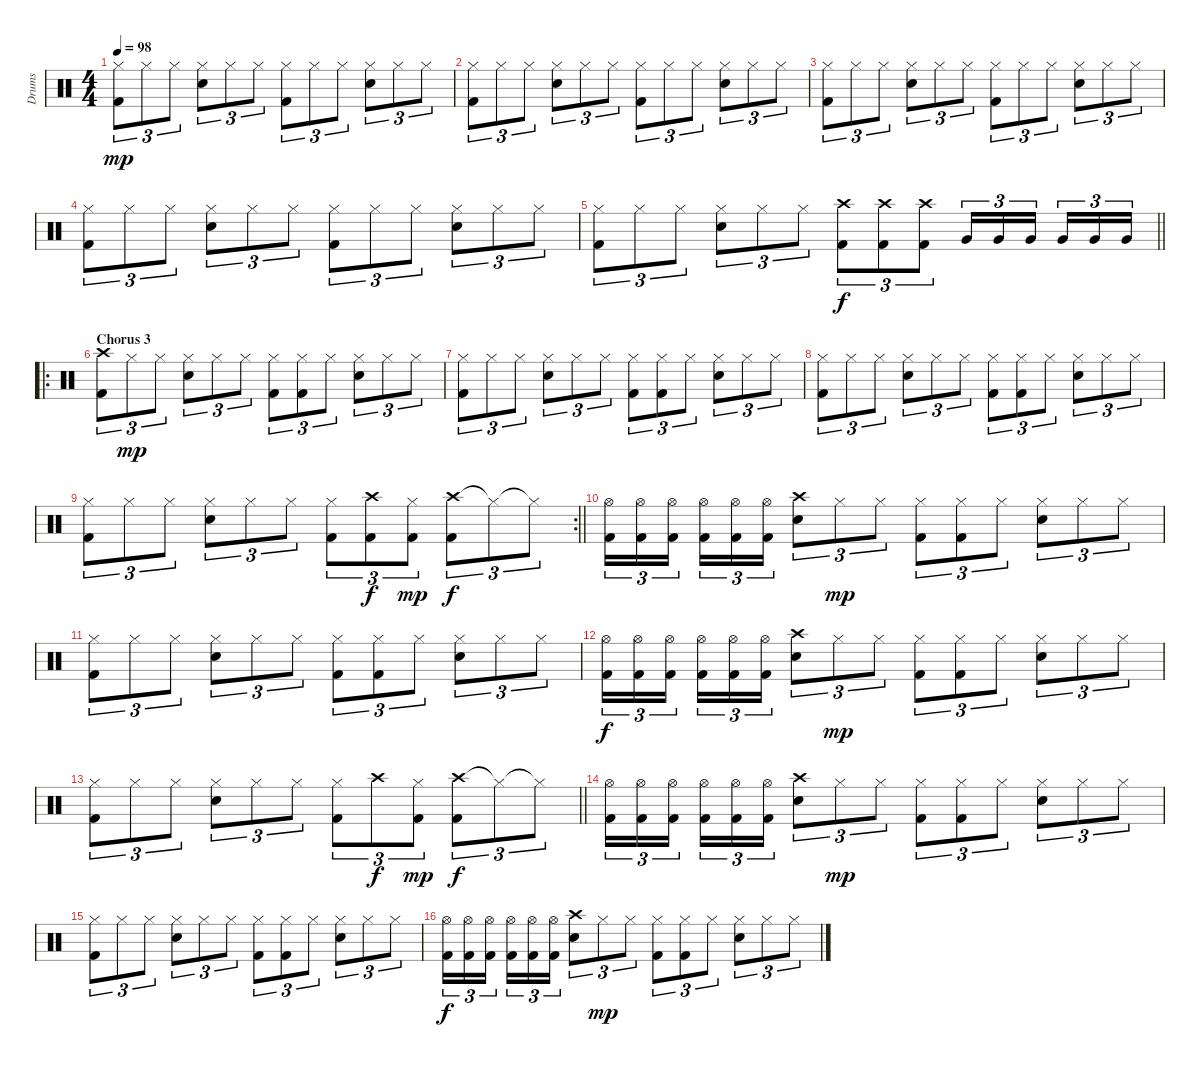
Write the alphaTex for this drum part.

\track ("Drums" "Drums") {instrument percussion}
\staff {score}
\articulation defaults
\ts (4 4)
\tempo 98
\clef neutral
\ks c
("Hi-Hat (closed)" "Kick (hit) 2").8{tu (3 2) dy mp} "Hi-Hat (closed)".8{tu (3 2)} "Hi-Hat (closed)".8{tu (3 2)} ("Hi-Hat (closed)" "Snare (hit) 2").8{tu (3 2)} "Hi-Hat (closed)".8{tu (3 2)} "Hi-Hat (closed)".8{tu (3 2)} ("Hi-Hat (closed)" "Kick (hit) 2").8{tu (3 2)} "Hi-Hat (closed)".8{tu (3 2)} "Hi-Hat (closed)".8{tu (3 2)} ("Hi-Hat (closed)" "Snare (hit) 2").8{tu (3 2)} "Hi-Hat (closed)".8{tu (3 2)} "Hi-Hat (closed)".8{tu (3 2)} |
("Hi-Hat (closed)" "Kick (hit) 2").8{tu (3 2)} "Hi-Hat (closed)".8{tu (3 2)} "Hi-Hat (closed)".8{tu (3 2)} ("Hi-Hat (closed)" "Snare (hit) 2").8{tu (3 2)} "Hi-Hat (closed)".8{tu (3 2)} "Hi-Hat (closed)".8{tu (3 2)} ("Hi-Hat (closed)" "Kick (hit) 2").8{tu (3 2)} "Hi-Hat (closed)".8{tu (3 2)} "Hi-Hat (closed)".8{tu (3 2)} ("Hi-Hat (closed)" "Snare (hit) 2").8{tu (3 2)} "Hi-Hat (closed)".8{tu (3 2)} "Hi-Hat (closed)".8{tu (3 2)} |
("Hi-Hat (closed)" "Kick (hit) 2").8{tu (3 2)} "Hi-Hat (closed)".8{tu (3 2)} "Hi-Hat (closed)".8{tu (3 2)} ("Hi-Hat (closed)" "Snare (hit) 2").8{tu (3 2)} "Hi-Hat (closed)".8{tu (3 2)} "Hi-Hat (closed)".8{tu (3 2)} ("Hi-Hat (closed)" "Kick (hit) 2").8{tu (3 2)} "Hi-Hat (closed)".8{tu (3 2)} "Hi-Hat (closed)".8{tu (3 2)} ("Hi-Hat (closed)" "Snare (hit) 2").8{tu (3 2)} "Hi-Hat (closed)".8{tu (3 2)} "Hi-Hat (closed)".8{tu (3 2)} |
("Hi-Hat (closed)" "Kick (hit) 2").8{tu (3 2)} "Hi-Hat (closed)".8{tu (3 2)} "Hi-Hat (closed)".8{tu (3 2)} ("Hi-Hat (closed)" "Snare (hit) 2").8{tu (3 2)} "Hi-Hat (closed)".8{tu (3 2)} "Hi-Hat (closed)".8{tu (3 2)} ("Hi-Hat (closed)" "Kick (hit) 2").8{tu (3 2)} "Hi-Hat (closed)".8{tu (3 2)} "Hi-Hat (closed)".8{tu (3 2)} ("Hi-Hat (closed)" "Snare (hit) 2").8{tu (3 2)} "Hi-Hat (closed)".8{tu (3 2)} "Hi-Hat (closed)".8{tu (3 2)} |
\barLineRight lightlight
("Hi-Hat (closed)" "Kick (hit) 2").8{tu (3 2)} "Hi-Hat (closed)".8{tu (3 2)} "Hi-Hat (closed)".8{tu (3 2)} ("Hi-Hat (closed)" "Snare (hit) 2").8{tu (3 2)} "Hi-Hat (closed)".8{tu (3 2)} "Hi-Hat (closed)".8{tu (3 2)} ("Crash high (hit)" "Kick (hit) 2").8{tu (3 2) dy f} ("Crash high (hit)" "Kick (hit) 2").8{tu (3 2)} ("Crash high (hit)" "Kick (hit) 2").8{tu (3 2)} "Very Low Tom (hit)".16{tu (3 2)} "Very Low Tom (hit)".16{tu (3 2)} "Very Low Tom (hit)".16{tu (3 2) beam splitsecondary} "Very Low Tom (hit)".16{tu (3 2)} "Very Low Tom (hit)".16{tu (3 2)} "Very Low Tom (hit)".16{tu (3 2)} |
\ro
\section ("" "Chorus 3")
("Crash high (hit)" "Kick (hit) 2").8{tu (3 2)} "Hi-Hat (closed)".8{tu (3 2) dy mp} "Hi-Hat (closed)".8{tu (3 2)} ("Hi-Hat (closed)" "Snare (hit) 2").8{tu (3 2)} "Hi-Hat (closed)".8{tu (3 2)} "Hi-Hat (closed)".8{tu (3 2)} ("Hi-Hat (closed)" "Kick (hit) 2").8{tu (3 2)} ("Hi-Hat (closed)" "Kick (hit) 2").8{tu (3 2)} "Hi-Hat (closed)".8{tu (3 2)} ("Hi-Hat (closed)" "Snare (hit) 2").8{tu (3 2)} "Hi-Hat (closed)".8{tu (3 2)} "Hi-Hat (closed)".8{tu (3 2)} |
("Hi-Hat (closed)" "Kick (hit) 2").8{tu (3 2)} "Hi-Hat (closed)".8{tu (3 2)} "Hi-Hat (closed)".8{tu (3 2)} ("Hi-Hat (closed)" "Snare (hit) 2").8{tu (3 2)} "Hi-Hat (closed)".8{tu (3 2)} "Hi-Hat (closed)".8{tu (3 2)} ("Hi-Hat (closed)" "Kick (hit) 2").8{tu (3 2)} ("Hi-Hat (closed)" "Kick (hit) 2").8{tu (3 2)} "Hi-Hat (closed)".8{tu (3 2)} ("Hi-Hat (closed)" "Snare (hit) 2").8{tu (3 2)} "Hi-Hat (closed)".8{tu (3 2)} "Hi-Hat (closed)".8{tu (3 2)} |
("Hi-Hat (closed)" "Kick (hit) 2").8{tu (3 2)} "Hi-Hat (closed)".8{tu (3 2)} "Hi-Hat (closed)".8{tu (3 2)} ("Hi-Hat (closed)" "Snare (hit) 2").8{tu (3 2)} "Hi-Hat (closed)".8{tu (3 2)} "Hi-Hat (closed)".8{tu (3 2)} ("Hi-Hat (closed)" "Kick (hit) 2").8{tu (3 2)} ("Hi-Hat (closed)" "Kick (hit) 2").8{tu (3 2)} "Hi-Hat (closed)".8{tu (3 2)} ("Hi-Hat (closed)" "Snare (hit) 2").8{tu (3 2)} "Hi-Hat (closed)".8{tu (3 2)} "Hi-Hat (closed)".8{tu (3 2)} |
\rc 2
\barLineRight lightlight
("Hi-Hat (closed)" "Kick (hit) 2").8{tu (3 2)} "Hi-Hat (closed)".8{tu (3 2)} "Hi-Hat (closed)".8{tu (3 2)} ("Hi-Hat (closed)" "Snare (hit) 2").8{tu (3 2)} "Hi-Hat (closed)".8{tu (3 2)} "Hi-Hat (closed)".8{tu (3 2)} ("Hi-Hat (closed)" "Kick (hit) 2").8{tu (3 2)} ("Crash high (hit)" "Kick (hit) 2").8{tu (3 2) dy f} ("Hi-Hat (closed)" "Kick (hit) 2").8{tu (3 2) dy mp} ("Crash high (hit)" "Kick (hit) 2").8{tu (3 2) dy f} "Hi-Hat (closed)"{t}.8{tu (3 2)} "Hi-Hat (closed)"{t}.8{tu (3 2)} |
("Hi-Hat (open)" "Kick (hit) 2").16{tu (3 2)} ("Hi-Hat (open)" "Kick (hit) 2").16{tu (3 2)} ("Hi-Hat (open)" "Kick (hit) 2").16{tu (3 2) beam splitsecondary} ("Hi-Hat (open)" "Kick (hit) 2").16{tu (3 2)} ("Hi-Hat (open)" "Kick (hit) 2").16{tu (3 2)} ("Hi-Hat (open)" "Kick (hit) 2").16{tu (3 2)} ("Crash high (hit)" "Snare (hit) 2").8{tu (3 2)} "Hi-Hat (closed)".8{tu (3 2) dy mp} "Hi-Hat (closed)".8{tu (3 2)} ("Hi-Hat (closed)" "Kick (hit) 2").8{tu (3 2)} ("Hi-Hat (closed)" "Kick (hit) 2").8{tu (3 2)} "Hi-Hat (closed)".8{tu (3 2)} ("Hi-Hat (closed)" "Snare (hit) 2").8{tu (3 2)} "Hi-Hat (closed)".8{tu (3 2)} "Hi-Hat (closed)".8{tu (3 2)} |
("Hi-Hat (closed)" "Kick (hit) 2").8{tu (3 2)} "Hi-Hat (closed)".8{tu (3 2)} "Hi-Hat (closed)".8{tu (3 2)} ("Hi-Hat (closed)" "Snare (hit) 2").8{tu (3 2)} "Hi-Hat (closed)".8{tu (3 2)} "Hi-Hat (closed)".8{tu (3 2)} ("Hi-Hat (closed)" "Kick (hit) 2").8{tu (3 2)} ("Hi-Hat (closed)" "Kick (hit) 2").8{tu (3 2)} "Hi-Hat (closed)".8{tu (3 2)} ("Hi-Hat (closed)" "Snare (hit) 2").8{tu (3 2)} "Hi-Hat (closed)".8{tu (3 2)} "Hi-Hat (closed)".8{tu (3 2)} |
("Hi-Hat (open)" "Kick (hit) 2").16{tu (3 2) dy f} ("Hi-Hat (open)" "Kick (hit) 2").16{tu (3 2)} ("Hi-Hat (open)" "Kick (hit) 2").16{tu (3 2) beam splitsecondary} ("Hi-Hat (open)" "Kick (hit) 2").16{tu (3 2)} ("Hi-Hat (open)" "Kick (hit) 2").16{tu (3 2)} ("Hi-Hat (open)" "Kick (hit) 2").16{tu (3 2)} ("Crash high (hit)" "Snare (hit) 2").8{tu (3 2)} "Hi-Hat (closed)".8{tu (3 2) dy mp} "Hi-Hat (closed)".8{tu (3 2)} ("Hi-Hat (closed)" "Kick (hit) 2").8{tu (3 2)} ("Hi-Hat (closed)" "Kick (hit) 2").8{tu (3 2)} "Hi-Hat (closed)".8{tu (3 2)} ("Hi-Hat (closed)" "Snare (hit) 2").8{tu (3 2)} "Hi-Hat (closed)".8{tu (3 2)} "Hi-Hat (closed)".8{tu (3 2)} |
\barLineRight lightlight
("Hi-Hat (closed)" "Kick (hit) 2").8{tu (3 2)} "Hi-Hat (closed)".8{tu (3 2)} "Hi-Hat (closed)".8{tu (3 2)} ("Hi-Hat (closed)" "Snare (hit) 2").8{tu (3 2)} "Hi-Hat (closed)".8{tu (3 2)} "Hi-Hat (closed)".8{tu (3 2)} ("Hi-Hat (closed)" "Kick (hit) 2").8{tu (3 2)} "Crash high (hit)".8{tu (3 2) dy f} ("Hi-Hat (closed)" "Kick (hit) 2").8{tu (3 2) dy mp} ("Crash high (hit)" "Kick (hit) 2").8{tu (3 2) dy f} "Hi-Hat (closed)"{t}.8{tu (3 2)} "Hi-Hat (closed)"{t}.8{tu (3 2)} |
("Hi-Hat (open)" "Kick (hit) 2").16{tu (3 2)} ("Hi-Hat (open)" "Kick (hit) 2").16{tu (3 2)} ("Hi-Hat (open)" "Kick (hit) 2").16{tu (3 2) beam splitsecondary} ("Hi-Hat (open)" "Kick (hit) 2").16{tu (3 2)} ("Hi-Hat (open)" "Kick (hit) 2").16{tu (3 2)} ("Hi-Hat (open)" "Kick (hit) 2").16{tu (3 2)} ("Crash high (hit)" "Snare (hit) 2").8{tu (3 2)} "Hi-Hat (closed)".8{tu (3 2) dy mp} "Hi-Hat (closed)".8{tu (3 2)} ("Hi-Hat (closed)" "Kick (hit) 2").8{tu (3 2)} ("Hi-Hat (closed)" "Kick (hit) 2").8{tu (3 2)} "Hi-Hat (closed)".8{tu (3 2)} ("Hi-Hat (closed)" "Snare (hit) 2").8{tu (3 2)} "Hi-Hat (closed)".8{tu (3 2)} "Hi-Hat (closed)".8{tu (3 2)} |
("Hi-Hat (closed)" "Kick (hit) 2").8{tu (3 2)} "Hi-Hat (closed)".8{tu (3 2)} "Hi-Hat (closed)".8{tu (3 2)} ("Hi-Hat (closed)" "Snare (hit) 2").8{tu (3 2)} "Hi-Hat (closed)".8{tu (3 2)} "Hi-Hat (closed)".8{tu (3 2)} ("Hi-Hat (closed)" "Kick (hit) 2").8{tu (3 2)} ("Hi-Hat (closed)" "Kick (hit) 2").8{tu (3 2)} "Hi-Hat (closed)".8{tu (3 2)} ("Hi-Hat (closed)" "Snare (hit) 2").8{tu (3 2)} "Hi-Hat (closed)".8{tu (3 2)} "Hi-Hat (closed)".8{tu (3 2)} |
("Hi-Hat (open)" "Kick (hit) 2").16{tu (3 2) dy f} ("Hi-Hat (open)" "Kick (hit) 2").16{tu (3 2)} ("Hi-Hat (open)" "Kick (hit) 2").16{tu (3 2) beam splitsecondary} ("Hi-Hat (open)" "Kick (hit) 2").16{tu (3 2)} ("Hi-Hat (open)" "Kick (hit) 2").16{tu (3 2)} ("Hi-Hat (open)" "Kick (hit) 2").16{tu (3 2)} ("Crash high (hit)" "Snare (hit) 2").8{tu (3 2)} "Hi-Hat (closed)".8{tu (3 2) dy mp} "Hi-Hat (closed)".8{tu (3 2)} ("Hi-Hat (closed)" "Kick (hit) 2").8{tu (3 2)} ("Hi-Hat (closed)" "Kick (hit) 2").8{tu (3 2)} "Hi-Hat (closed)".8{tu (3 2)} ("Hi-Hat (closed)" "Snare (hit) 2").8{tu (3 2)} "Hi-Hat (closed)".8{tu (3 2)} "Hi-Hat (closed)".8{tu (3 2)}
